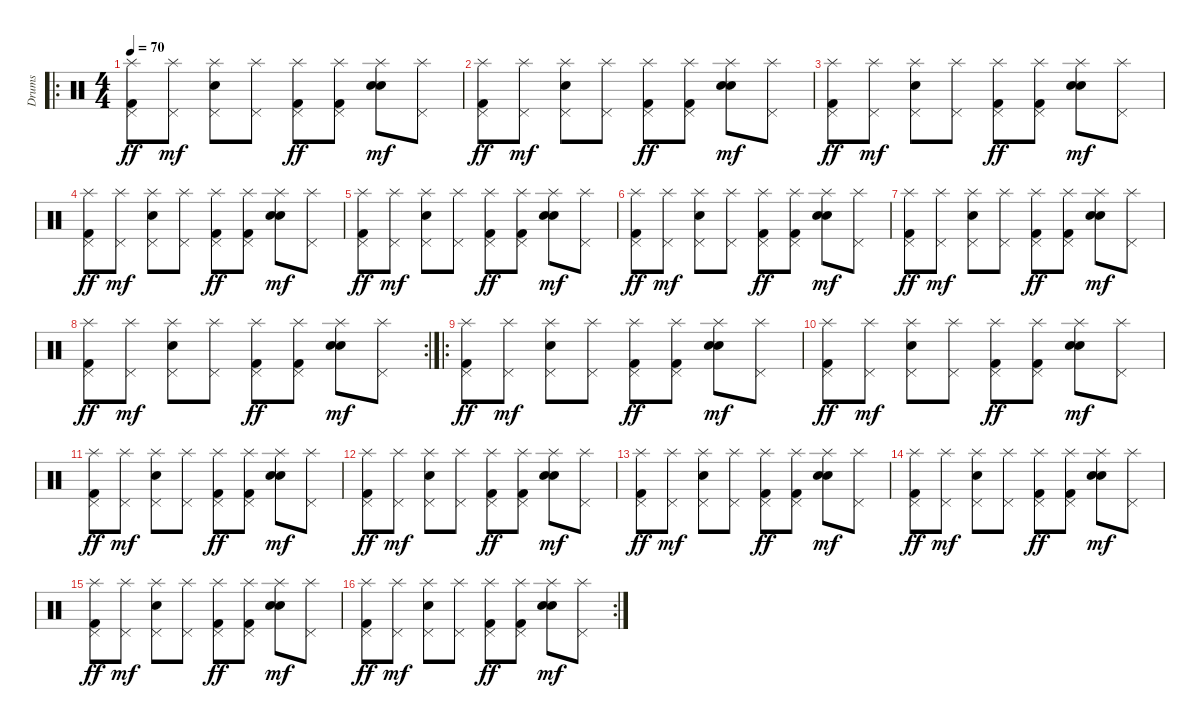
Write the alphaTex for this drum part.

\track ("Drums" "Drums") {instrument percussion}
\staff {score}
\articulation defaults
\ro
\ts (4 4)
\tempo 70
\clef neutral
\ks c
("Splash (hit)" "Pedal Hi-Hat (hit)" "Kick (hit) 2").8{dy ff} ("Splash (hit)" "Pedal Hi-Hat (hit)").8{dy mf} ("Splash (hit)" "Pedal Hi-Hat (hit)" "Snare (hit) 2").8 ("Splash (hit)" "Pedal Hi-Hat (hit)").8 ("Splash (hit)" "Pedal Hi-Hat (hit)" "Kick (hit) 2").8{dy ff} ("Splash (hit)" "Pedal Hi-Hat (hit)" "Kick (hit) 2").8 ("Splash (hit)" "Electric Snare (hit)" "Snare (hit) 2").8{dy mf} ("Splash (hit)" "Pedal Hi-Hat (hit)").8 |
("Splash (hit)" "Pedal Hi-Hat (hit)" "Kick (hit) 2").8{dy ff} ("Splash (hit)" "Pedal Hi-Hat (hit)").8{dy mf} ("Splash (hit)" "Pedal Hi-Hat (hit)" "Snare (hit) 2").8 ("Splash (hit)" "Pedal Hi-Hat (hit)").8 ("Splash (hit)" "Pedal Hi-Hat (hit)" "Kick (hit) 2").8{dy ff} ("Splash (hit)" "Pedal Hi-Hat (hit)" "Kick (hit) 2").8 ("Splash (hit)" "Electric Snare (hit)" "Snare (hit) 2").8{dy mf} ("Splash (hit)" "Pedal Hi-Hat (hit)").8 |
("Splash (hit)" "Pedal Hi-Hat (hit)" "Kick (hit) 2").8{dy ff} ("Splash (hit)" "Pedal Hi-Hat (hit)").8{dy mf} ("Splash (hit)" "Pedal Hi-Hat (hit)" "Snare (hit) 2").8 ("Splash (hit)" "Pedal Hi-Hat (hit)").8 ("Splash (hit)" "Pedal Hi-Hat (hit)" "Kick (hit) 2").8{dy ff} ("Splash (hit)" "Pedal Hi-Hat (hit)" "Kick (hit) 2").8 ("Splash (hit)" "Electric Snare (hit)" "Snare (hit) 2").8{dy mf} ("Splash (hit)" "Pedal Hi-Hat (hit)").8 |
("Splash (hit)" "Pedal Hi-Hat (hit)" "Kick (hit) 2").8{dy ff} ("Splash (hit)" "Pedal Hi-Hat (hit)").8{dy mf} ("Splash (hit)" "Pedal Hi-Hat (hit)" "Snare (hit) 2").8 ("Splash (hit)" "Pedal Hi-Hat (hit)").8 ("Splash (hit)" "Pedal Hi-Hat (hit)" "Kick (hit) 2").8{dy ff} ("Splash (hit)" "Pedal Hi-Hat (hit)" "Kick (hit) 2").8 ("Splash (hit)" "Electric Snare (hit)" "Snare (hit) 2").8{dy mf} ("Splash (hit)" "Pedal Hi-Hat (hit)").8 |
("Splash (hit)" "Pedal Hi-Hat (hit)" "Kick (hit) 2").8{dy ff} ("Splash (hit)" "Pedal Hi-Hat (hit)").8{dy mf} ("Splash (hit)" "Pedal Hi-Hat (hit)" "Snare (hit) 2").8 ("Splash (hit)" "Pedal Hi-Hat (hit)").8 ("Splash (hit)" "Pedal Hi-Hat (hit)" "Kick (hit) 2").8{dy ff} ("Splash (hit)" "Pedal Hi-Hat (hit)" "Kick (hit) 2").8 ("Splash (hit)" "Electric Snare (hit)" "Snare (hit) 2").8{dy mf} ("Splash (hit)" "Pedal Hi-Hat (hit)").8 |
("Splash (hit)" "Pedal Hi-Hat (hit)" "Kick (hit) 2").8{dy ff} ("Splash (hit)" "Pedal Hi-Hat (hit)").8{dy mf} ("Splash (hit)" "Pedal Hi-Hat (hit)" "Snare (hit) 2").8 ("Splash (hit)" "Pedal Hi-Hat (hit)").8 ("Splash (hit)" "Pedal Hi-Hat (hit)" "Kick (hit) 2").8{dy ff} ("Splash (hit)" "Pedal Hi-Hat (hit)" "Kick (hit) 2").8 ("Splash (hit)" "Electric Snare (hit)" "Snare (hit) 2").8{dy mf} ("Splash (hit)" "Pedal Hi-Hat (hit)").8 |
("Splash (hit)" "Pedal Hi-Hat (hit)" "Kick (hit) 2").8{dy ff} ("Splash (hit)" "Pedal Hi-Hat (hit)").8{dy mf} ("Splash (hit)" "Pedal Hi-Hat (hit)" "Snare (hit) 2").8 ("Splash (hit)" "Pedal Hi-Hat (hit)").8 ("Splash (hit)" "Pedal Hi-Hat (hit)" "Kick (hit) 2").8{dy ff} ("Splash (hit)" "Pedal Hi-Hat (hit)" "Kick (hit) 2").8 ("Splash (hit)" "Electric Snare (hit)" "Snare (hit) 2").8{dy mf} ("Splash (hit)" "Pedal Hi-Hat (hit)").8 |
\rc 2
("Splash (hit)" "Pedal Hi-Hat (hit)" "Kick (hit) 2").8{dy ff} ("Splash (hit)" "Pedal Hi-Hat (hit)").8{dy mf} ("Splash (hit)" "Pedal Hi-Hat (hit)" "Snare (hit) 2").8 ("Splash (hit)" "Pedal Hi-Hat (hit)").8 ("Splash (hit)" "Pedal Hi-Hat (hit)" "Kick (hit) 2").8{dy ff} ("Splash (hit)" "Pedal Hi-Hat (hit)" "Kick (hit) 2").8 ("Splash (hit)" "Electric Snare (hit)" "Snare (hit) 2").8{dy mf} ("Splash (hit)" "Pedal Hi-Hat (hit)").8 |
\ro
("Splash (hit)" "Pedal Hi-Hat (hit)" "Kick (hit) 2").8{dy ff} ("Splash (hit)" "Pedal Hi-Hat (hit)").8{dy mf} ("Splash (hit)" "Pedal Hi-Hat (hit)" "Snare (hit) 2").8 ("Splash (hit)" "Pedal Hi-Hat (hit)").8 ("Splash (hit)" "Pedal Hi-Hat (hit)" "Kick (hit) 2").8{dy ff} ("Splash (hit)" "Pedal Hi-Hat (hit)" "Kick (hit) 2").8 ("Splash (hit)" "Electric Snare (hit)" "Snare (hit) 2").8{dy mf} ("Splash (hit)" "Pedal Hi-Hat (hit)").8 |
("Splash (hit)" "Pedal Hi-Hat (hit)" "Kick (hit) 2").8{dy ff} ("Splash (hit)" "Pedal Hi-Hat (hit)").8{dy mf} ("Splash (hit)" "Pedal Hi-Hat (hit)" "Snare (hit) 2").8 ("Splash (hit)" "Pedal Hi-Hat (hit)").8 ("Splash (hit)" "Pedal Hi-Hat (hit)" "Kick (hit) 2").8{dy ff} ("Splash (hit)" "Pedal Hi-Hat (hit)" "Kick (hit) 2").8 ("Splash (hit)" "Electric Snare (hit)" "Snare (hit) 2").8{dy mf} ("Splash (hit)" "Pedal Hi-Hat (hit)").8 |
("Splash (hit)" "Pedal Hi-Hat (hit)" "Kick (hit) 2").8{dy ff} ("Splash (hit)" "Pedal Hi-Hat (hit)").8{dy mf} ("Splash (hit)" "Pedal Hi-Hat (hit)" "Snare (hit) 2").8 ("Splash (hit)" "Pedal Hi-Hat (hit)").8 ("Splash (hit)" "Pedal Hi-Hat (hit)" "Kick (hit) 2").8{dy ff} ("Splash (hit)" "Pedal Hi-Hat (hit)" "Kick (hit) 2").8 ("Splash (hit)" "Electric Snare (hit)" "Snare (hit) 2").8{dy mf} ("Splash (hit)" "Pedal Hi-Hat (hit)").8 |
("Splash (hit)" "Pedal Hi-Hat (hit)" "Kick (hit) 2").8{dy ff} ("Splash (hit)" "Pedal Hi-Hat (hit)").8{dy mf} ("Splash (hit)" "Pedal Hi-Hat (hit)" "Snare (hit) 2").8 ("Splash (hit)" "Pedal Hi-Hat (hit)").8 ("Splash (hit)" "Pedal Hi-Hat (hit)" "Kick (hit) 2").8{dy ff} ("Splash (hit)" "Pedal Hi-Hat (hit)" "Kick (hit) 2").8 ("Splash (hit)" "Electric Snare (hit)" "Snare (hit) 2").8{dy mf} ("Splash (hit)" "Pedal Hi-Hat (hit)").8 |
("Splash (hit)" "Pedal Hi-Hat (hit)" "Kick (hit) 2").8{dy ff} ("Splash (hit)" "Pedal Hi-Hat (hit)").8{dy mf} ("Splash (hit)" "Pedal Hi-Hat (hit)" "Snare (hit) 2").8 ("Splash (hit)" "Pedal Hi-Hat (hit)").8 ("Splash (hit)" "Pedal Hi-Hat (hit)" "Kick (hit) 2").8{dy ff} ("Splash (hit)" "Pedal Hi-Hat (hit)" "Kick (hit) 2").8 ("Splash (hit)" "Electric Snare (hit)" "Snare (hit) 2").8{dy mf} ("Splash (hit)" "Pedal Hi-Hat (hit)").8 |
("Splash (hit)" "Pedal Hi-Hat (hit)" "Kick (hit) 2").8{dy ff} ("Splash (hit)" "Pedal Hi-Hat (hit)").8{dy mf} ("Splash (hit)" "Pedal Hi-Hat (hit)" "Snare (hit) 2").8 ("Splash (hit)" "Pedal Hi-Hat (hit)").8 ("Splash (hit)" "Pedal Hi-Hat (hit)" "Kick (hit) 2").8{dy ff} ("Splash (hit)" "Pedal Hi-Hat (hit)" "Kick (hit) 2").8 ("Splash (hit)" "Electric Snare (hit)" "Snare (hit) 2").8{dy mf} ("Splash (hit)" "Pedal Hi-Hat (hit)").8 |
("Splash (hit)" "Pedal Hi-Hat (hit)" "Kick (hit) 2").8{dy ff} ("Splash (hit)" "Pedal Hi-Hat (hit)").8{dy mf} ("Splash (hit)" "Pedal Hi-Hat (hit)" "Snare (hit) 2").8 ("Splash (hit)" "Pedal Hi-Hat (hit)").8 ("Splash (hit)" "Pedal Hi-Hat (hit)" "Kick (hit) 2").8{dy ff} ("Splash (hit)" "Pedal Hi-Hat (hit)" "Kick (hit) 2").8 ("Splash (hit)" "Electric Snare (hit)" "Snare (hit) 2").8{dy mf} ("Splash (hit)" "Pedal Hi-Hat (hit)").8 |
\rc 2
("Splash (hit)" "Pedal Hi-Hat (hit)" "Kick (hit) 2").8{dy ff} ("Splash (hit)" "Pedal Hi-Hat (hit)").8{dy mf} ("Splash (hit)" "Pedal Hi-Hat (hit)" "Snare (hit) 2").8 ("Splash (hit)" "Pedal Hi-Hat (hit)").8 ("Splash (hit)" "Pedal Hi-Hat (hit)" "Kick (hit) 2").8{dy ff} ("Splash (hit)" "Pedal Hi-Hat (hit)" "Kick (hit) 2").8 ("Splash (hit)" "Electric Snare (hit)" "Snare (hit) 2").8{dy mf} ("Splash (hit)" "Pedal Hi-Hat (hit)").8
